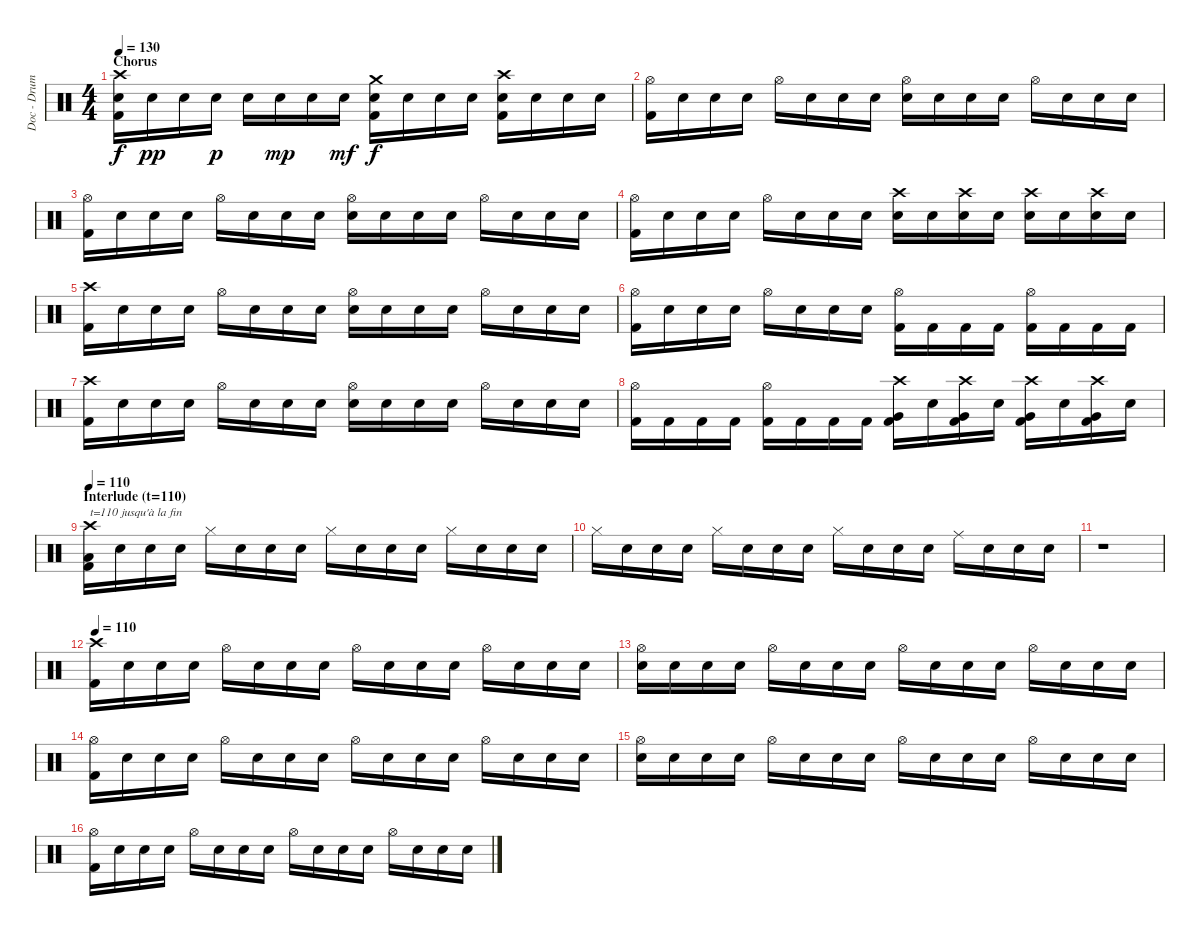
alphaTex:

\track ("Doc - Drums" "Doc - Drum") {instrument percussion}
\staff {score}
\articulation defaults
\ts (4 4)
\section ("" "Chorus")
\tempo 130
\clef neutral
\ks c
("Crash high (hit)" "Electric Snare (hit)" "Kick (hit) 2").16{dy f volume 16 balance 8} "Electric Snare (hit)".16{dy pp} "Electric Snare (hit)".16 "Electric Snare (hit)".16{dy p} "Electric Snare (hit)".16 "Electric Snare (hit)".16{dy mp} "Electric Snare (hit)".16 "Electric Snare (hit)".16{dy mf} ("Crash medium (hit)" "Electric Snare (hit)" "Kick (hit) 2").16{dy f} "Snare (hit)".16 "Snare (hit)".16 "Snare (hit)".16 ("Crash high (hit)" "Electric Snare (hit)" "Kick (hit) 2").16 "Snare (hit)".16 "Snare (hit)".16 "Snare (hit)".16 |
("Hi-Hat (open)" "Kick (hit) 2").16 "Snare (hit)".16 "Snare (hit)".16 "Snare (hit)".16 "Hi-Hat (open)".16 "Snare (hit)".16 "Snare (hit)".16 "Snare (hit)".16 ("Hi-Hat (open)" "Electric Snare (hit)").16 "Snare (hit)".16 "Snare (hit)".16 "Snare (hit)".16 "Hi-Hat (open)".16 "Snare (hit)".16 "Snare (hit)".16 "Snare (hit)".16 |
("Hi-Hat (open)" "Kick (hit) 2").16 "Snare (hit)".16 "Snare (hit)".16 "Snare (hit)".16 "Hi-Hat (open)".16 "Snare (hit)".16 "Snare (hit)".16 "Snare (hit)".16 ("Hi-Hat (open)" "Electric Snare (hit)").16 "Snare (hit)".16 "Snare (hit)".16 "Snare (hit)".16 "Hi-Hat (open)".16 "Snare (hit)".16 "Snare (hit)".16 "Snare (hit)".16 |
("Hi-Hat (open)" "Kick (hit) 2").16 "Snare (hit)".16 "Snare (hit)".16 "Snare (hit)".16 "Hi-Hat (open)".16 "Snare (hit)".16 "Snare (hit)".16 "Snare (hit)".16 ("Crash high (hit)" "Electric Snare (hit)").16 "Snare (hit)".16 ("Crash high (hit)" "Electric Snare (hit)").16 "Snare (hit)".16 ("Crash high (hit)" "Electric Snare (hit)").16 "Snare (hit)".16 ("Crash high (hit)" "Electric Snare (hit)").16 "Snare (hit)".16 |
("Crash high (hit)" "Kick (hit) 2").16 "Snare (hit)".16 "Snare (hit)".16 "Snare (hit)".16 "Hi-Hat (open)".16 "Snare (hit)".16 "Snare (hit)".16 "Snare (hit)".16 ("Hi-Hat (open)" "Electric Snare (hit)").16 "Snare (hit)".16 "Snare (hit)".16 "Snare (hit)".16 "Hi-Hat (open)".16 "Snare (hit)".16 "Snare (hit)".16 "Snare (hit)".16 |
("Hi-Hat (open)" "Kick (hit) 2").16 "Snare (hit)".16 "Snare (hit)".16 "Snare (hit)".16 "Hi-Hat (open)".16 "Snare (hit)".16 "Snare (hit)".16 "Snare (hit)".16 ("Hi-Hat (open)" "Kick (hit) 2").16 "Kick (hit) 2".16 "Kick (hit) 2".16 "Kick (hit) 2".16 ("Hi-Hat (open)" "Kick (hit) 2").16 "Kick (hit) 2".16 "Kick (hit) 2".16 "Kick (hit) 2".16 |
("Crash high (hit)" "Kick (hit) 2").16 "Snare (hit)".16 "Snare (hit)".16 "Snare (hit)".16 "Hi-Hat (open)".16 "Snare (hit)".16 "Snare (hit)".16 "Snare (hit)".16 ("Hi-Hat (open)" "Electric Snare (hit)").16 "Snare (hit)".16 "Snare (hit)".16 "Snare (hit)".16 "Hi-Hat (open)".16 "Snare (hit)".16 "Snare (hit)".16 "Snare (hit)".16 |
("Hi-Hat (open)" "Kick (hit) 2").16 "Kick (hit) 2".16 "Kick (hit) 2".16 "Kick (hit) 2".16 ("Hi-Hat (open)" "Kick (hit) 2").16 "Kick (hit) 2".16 "Kick (hit) 2".16 "Kick (hit) 2".16 ("Crash high (hit)" "Very Low Tom (hit)" "Kick (hit) 2").16 "Snare (hit)".16 ("Crash high (hit)" "Very Low Tom (hit)" "Kick (hit) 2").16 "Snare (hit)".16 ("Crash high (hit)" "Very Low Tom (hit)" "Kick (hit) 2").16 "Snare (hit)".16 ("Crash high (hit)" "Very Low Tom (hit)" "Kick (hit) 2").16 "Snare (hit)".16 |
\section ("" "Interlude (t=110)")
\tempo 110
("Crash high (hit)" "Low Floor Tom (hit)" "Kick (hit) 2").16{txt "t=110 jusqu'à la fin" volume 16 balance 8} "Snare (hit)".16 "Snare (hit)".16 "Snare (hit)".16 "Hi-Hat (closed)".16 "Snare (hit)".16 "Snare (hit)".16 "Snare (hit)".16 "Hi-Hat (closed)".16 "Snare (hit)".16 "Snare (hit)".16 "Snare (hit)".16 "Hi-Hat (closed)".16 "Snare (hit)".16 "Snare (hit)".16 "Snare (hit)".16 |
"Hi-Hat (closed)".16 "Snare (hit)".16 "Snare (hit)".16 "Snare (hit)".16 "Hi-Hat (closed)".16 "Snare (hit)".16 "Snare (hit)".16 "Snare (hit)".16 "Hi-Hat (closed)".16 "Snare (hit)".16 "Snare (hit)".16 "Snare (hit)".16 "Ride (middle)".16 "Snare (hit)".16 "Snare (hit)".16 "Snare (hit)".16 |
r.1 |
\tempo 110
("Crash high (hit)" "Kick (hit) 2").16{volume 16 balance 8} "Snare (hit)".16 "Snare (hit)".16 "Snare (hit)".16 "Hi-Hat (open)".16 "Snare (hit)".16 "Snare (hit)".16 "Snare (hit)".16 "Hi-Hat (open)".16 "Snare (hit)".16 "Snare (hit)".16 "Snare (hit)".16 "Hi-Hat (open)".16 "Snare (hit)".16 "Snare (hit)".16 "Snare (hit)".16 |
("Hi-Hat (open)" "Electric Snare (hit)").16 "Snare (hit)".16 "Snare (hit)".16 "Snare (hit)".16 "Hi-Hat (open)".16 "Snare (hit)".16 "Snare (hit)".16 "Snare (hit)".16 "Hi-Hat (open)".16 "Snare (hit)".16 "Snare (hit)".16 "Snare (hit)".16 "Hi-Hat (open)".16 "Snare (hit)".16 "Snare (hit)".16 "Snare (hit)".16 |
("Hi-Hat (open)" "Kick (hit) 2").16 "Snare (hit)".16 "Snare (hit)".16 "Snare (hit)".16 "Hi-Hat (open)".16 "Snare (hit)".16 "Snare (hit)".16 "Snare (hit)".16 "Hi-Hat (open)".16 "Snare (hit)".16 "Snare (hit)".16 "Snare (hit)".16 "Hi-Hat (open)".16 "Snare (hit)".16 "Snare (hit)".16 "Snare (hit)".16 |
("Hi-Hat (open)" "Electric Snare (hit)").16 "Snare (hit)".16 "Snare (hit)".16 "Snare (hit)".16 "Hi-Hat (open)".16 "Snare (hit)".16 "Snare (hit)".16 "Snare (hit)".16 "Hi-Hat (open)".16 "Snare (hit)".16 "Snare (hit)".16 "Snare (hit)".16 "Hi-Hat (open)".16 "Snare (hit)".16 "Snare (hit)".16 "Snare (hit)".16 |
("Hi-Hat (open)" "Kick (hit) 2").16 "Snare (hit)".16 "Snare (hit)".16 "Snare (hit)".16 "Hi-Hat (open)".16 "Snare (hit)".16 "Snare (hit)".16 "Snare (hit)".16 "Hi-Hat (open)".16 "Snare (hit)".16 "Snare (hit)".16 "Snare (hit)".16 "Hi-Hat (open)".16 "Snare (hit)".16 "Snare (hit)".16 "Snare (hit)".16
